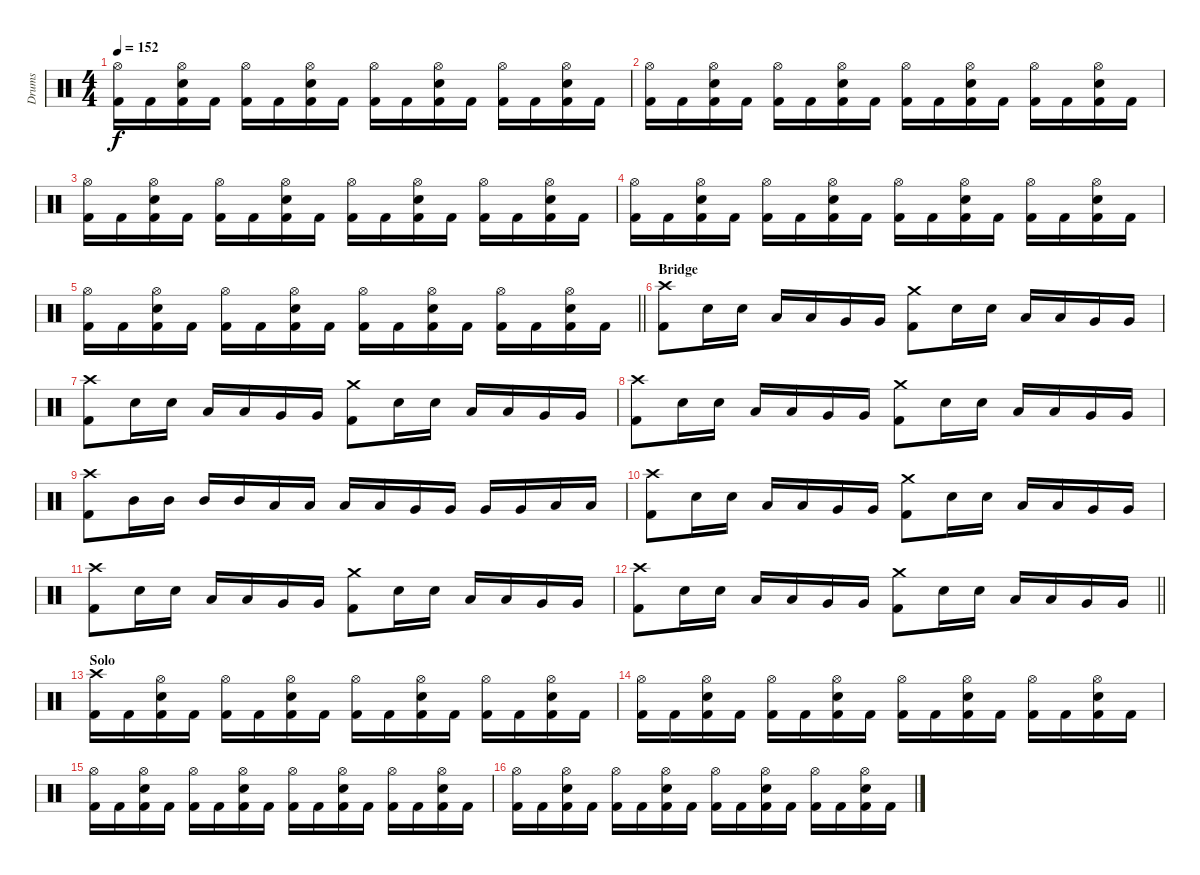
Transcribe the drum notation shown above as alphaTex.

\track ("Drums" "Drums") {instrument percussion}
\staff {score}
\articulation defaults
\ts (4 4)
\tempo 152
\clef neutral
\ks c
("Hi-Hat (open)" "Kick (hit) 2").16{dy f} "Kick (hit) 2".16 ("Hi-Hat (open)" "Snare (hit) 2" "Kick (hit) 2").16 "Kick (hit) 2".16 ("Hi-Hat (open)" "Kick (hit) 2").16 "Kick (hit) 2".16 ("Hi-Hat (open)" "Snare (hit) 2" "Kick (hit) 2").16 "Kick (hit) 2".16 ("Hi-Hat (open)" "Kick (hit) 2").16 "Kick (hit) 2".16 ("Hi-Hat (open)" "Snare (hit) 2" "Kick (hit) 2").16 "Kick (hit) 2".16 ("Hi-Hat (open)" "Kick (hit) 2").16 "Kick (hit) 2".16 ("Hi-Hat (open)" "Snare (hit) 2" "Kick (hit) 2").16 "Kick (hit) 2".16 |
("Hi-Hat (open)" "Kick (hit) 2").16 "Kick (hit) 2".16 ("Hi-Hat (open)" "Snare (hit) 2" "Kick (hit) 2").16 "Kick (hit) 2".16 ("Hi-Hat (open)" "Kick (hit) 2").16 "Kick (hit) 2".16 ("Hi-Hat (open)" "Snare (hit) 2" "Kick (hit) 2").16 "Kick (hit) 2".16 ("Hi-Hat (open)" "Kick (hit) 2").16 "Kick (hit) 2".16 ("Hi-Hat (open)" "Snare (hit) 2" "Kick (hit) 2").16 "Kick (hit) 2".16 ("Hi-Hat (open)" "Kick (hit) 2").16 "Kick (hit) 2".16 ("Hi-Hat (open)" "Snare (hit) 2" "Kick (hit) 2").16 "Kick (hit) 2".16 |
("Hi-Hat (open)" "Kick (hit) 2").16 "Kick (hit) 2".16 ("Hi-Hat (open)" "Snare (hit) 2" "Kick (hit) 2").16 "Kick (hit) 2".16 ("Hi-Hat (open)" "Kick (hit) 2").16 "Kick (hit) 2".16 ("Hi-Hat (open)" "Snare (hit) 2" "Kick (hit) 2").16 "Kick (hit) 2".16 ("Hi-Hat (open)" "Kick (hit) 2").16 "Kick (hit) 2".16 ("Hi-Hat (open)" "Snare (hit) 2" "Kick (hit) 2").16 "Kick (hit) 2".16 ("Hi-Hat (open)" "Kick (hit) 2").16 "Kick (hit) 2".16 ("Hi-Hat (open)" "Snare (hit) 2" "Kick (hit) 2").16 "Kick (hit) 2".16 |
("Hi-Hat (open)" "Kick (hit) 2").16 "Kick (hit) 2".16 ("Hi-Hat (open)" "Snare (hit) 2" "Kick (hit) 2").16 "Kick (hit) 2".16 ("Hi-Hat (open)" "Kick (hit) 2").16 "Kick (hit) 2".16 ("Hi-Hat (open)" "Snare (hit) 2" "Kick (hit) 2").16 "Kick (hit) 2".16 ("Hi-Hat (open)" "Kick (hit) 2").16 "Kick (hit) 2".16 ("Hi-Hat (open)" "Snare (hit) 2" "Kick (hit) 2").16 "Kick (hit) 2".16 ("Hi-Hat (open)" "Kick (hit) 2").16 "Kick (hit) 2".16 ("Hi-Hat (open)" "Snare (hit) 2" "Kick (hit) 2").16 "Kick (hit) 2".16 |
\barLineRight lightlight
("Hi-Hat (open)" "Kick (hit) 2").16 "Kick (hit) 2".16 ("Hi-Hat (open)" "Snare (hit) 2" "Kick (hit) 2").16 "Kick (hit) 2".16 ("Hi-Hat (open)" "Kick (hit) 2").16 "Kick (hit) 2".16 ("Hi-Hat (open)" "Snare (hit) 2" "Kick (hit) 2").16 "Kick (hit) 2".16 ("Hi-Hat (open)" "Kick (hit) 2").16 "Kick (hit) 2".16 ("Hi-Hat (open)" "Snare (hit) 2" "Kick (hit) 2").16 "Kick (hit) 2".16 ("Hi-Hat (open)" "Kick (hit) 2").16 "Kick (hit) 2".16 ("Hi-Hat (open)" "Snare (hit) 2" "Kick (hit) 2").16 "Kick (hit) 2".16 |
\section ("" "Bridge")
("Crash high (hit)" "Kick (hit) 2").8 "Snare (hit) 2".16 "Snare (hit) 2".16 "Low Tom (hit)".16 "Low Tom (hit)".16 "Very Low Tom (hit)".16 "Very Low Tom (hit)".16 ("Crash medium (hit)" "Kick (hit) 2").8 "Snare (hit) 2".16 "Snare (hit) 2".16 "Low Tom (hit)".16 "Low Tom (hit)".16 "Very Low Tom (hit)".16 "Very Low Tom (hit)".16 |
("Crash high (hit)" "Kick (hit) 2").8 "Snare (hit) 2".16 "Snare (hit) 2".16 "Low Tom (hit)".16 "Low Tom (hit)".16 "Very Low Tom (hit)".16 "Very Low Tom (hit)".16 ("Crash medium (hit)" "Kick (hit) 2").8 "Snare (hit) 2".16 "Snare (hit) 2".16 "Low Tom (hit)".16 "Low Tom (hit)".16 "Very Low Tom (hit)".16 "Very Low Tom (hit)".16 |
("Crash high (hit)" "Kick (hit) 2").8 "Snare (hit) 2".16 "Snare (hit) 2".16 "Low Tom (hit)".16 "Low Tom (hit)".16 "Very Low Tom (hit)".16 "Very Low Tom (hit)".16 ("Crash medium (hit)" "Kick (hit) 2").8 "Snare (hit) 2".16 "Snare (hit) 2".16 "Low Tom (hit)".16 "Low Tom (hit)".16 "Very Low Tom (hit)".16 "Very Low Tom (hit)".16 |
("Crash high (hit)" "Kick (hit) 2").8 "Mid Tom (hit)".16 "Mid Tom (hit)".16 "Mid Tom (hit)".16 "Mid Tom (hit)".16 "Low Tom (hit)".16 "Low Tom (hit)".16 "Low Tom (hit)".16 "Low Tom (hit)".16 "Very Low Tom (hit)".16 "Very Low Tom (hit)".16 "Very Low Tom (hit)".16 "Very Low Tom (hit)".16 "Low Floor Tom (hit)".16 "Low Floor Tom (hit)".16 |
("Crash high (hit)" "Kick (hit) 2").8 "Snare (hit) 2".16 "Snare (hit) 2".16 "Low Tom (hit)".16 "Low Tom (hit)".16 "Very Low Tom (hit)".16 "Very Low Tom (hit)".16 ("Crash medium (hit)" "Kick (hit) 2").8 "Snare (hit) 2".16 "Snare (hit) 2".16 "Low Tom (hit)".16 "Low Tom (hit)".16 "Very Low Tom (hit)".16 "Very Low Tom (hit)".16 |
("Crash high (hit)" "Kick (hit) 2").8 "Snare (hit) 2".16 "Snare (hit) 2".16 "Low Tom (hit)".16 "Low Tom (hit)".16 "Very Low Tom (hit)".16 "Very Low Tom (hit)".16 ("Crash medium (hit)" "Kick (hit) 2").8 "Snare (hit) 2".16 "Snare (hit) 2".16 "Low Tom (hit)".16 "Low Tom (hit)".16 "Very Low Tom (hit)".16 "Very Low Tom (hit)".16 |
\barLineRight lightlight
("Crash high (hit)" "Kick (hit) 2").8 "Snare (hit) 2".16 "Snare (hit) 2".16 "Low Tom (hit)".16 "Low Tom (hit)".16 "Very Low Tom (hit)".16 "Very Low Tom (hit)".16 ("Crash medium (hit)" "Kick (hit) 2").8 "Snare (hit) 2".16 "Snare (hit) 2".16 "Low Tom (hit)".16 "Low Tom (hit)".16 "Very Low Tom (hit)".16 "Very Low Tom (hit)".16 |
\section ("" "Solo")
("Crash high (hit)" "Kick (hit) 2").16 "Kick (hit) 2".16 ("Hi-Hat (open)" "Snare (hit) 2" "Kick (hit) 2").16 "Kick (hit) 2".16 ("Hi-Hat (open)" "Kick (hit) 2").16 "Kick (hit) 2".16 ("Hi-Hat (open)" "Snare (hit) 2" "Kick (hit) 2").16 "Kick (hit) 2".16 ("Hi-Hat (open)" "Kick (hit) 2").16 "Kick (hit) 2".16 ("Hi-Hat (open)" "Snare (hit) 2" "Kick (hit) 2").16 "Kick (hit) 2".16 ("Hi-Hat (open)" "Kick (hit) 2").16 "Kick (hit) 2".16 ("Hi-Hat (open)" "Snare (hit) 2" "Kick (hit) 2").16 "Kick (hit) 2".16 |
("Hi-Hat (open)" "Kick (hit) 2").16 "Kick (hit) 2".16 ("Hi-Hat (open)" "Snare (hit) 2" "Kick (hit) 2").16 "Kick (hit) 2".16 ("Hi-Hat (open)" "Kick (hit) 2").16 "Kick (hit) 2".16 ("Hi-Hat (open)" "Snare (hit) 2" "Kick (hit) 2").16 "Kick (hit) 2".16 ("Hi-Hat (open)" "Kick (hit) 2").16 "Kick (hit) 2".16 ("Hi-Hat (open)" "Snare (hit) 2" "Kick (hit) 2").16 "Kick (hit) 2".16 ("Hi-Hat (open)" "Kick (hit) 2").16 "Kick (hit) 2".16 ("Hi-Hat (open)" "Snare (hit) 2" "Kick (hit) 2").16 "Kick (hit) 2".16 |
("Hi-Hat (open)" "Kick (hit) 2").16 "Kick (hit) 2".16 ("Hi-Hat (open)" "Snare (hit) 2" "Kick (hit) 2").16 "Kick (hit) 2".16 ("Hi-Hat (open)" "Kick (hit) 2").16 "Kick (hit) 2".16 ("Hi-Hat (open)" "Snare (hit) 2" "Kick (hit) 2").16 "Kick (hit) 2".16 ("Hi-Hat (open)" "Kick (hit) 2").16 "Kick (hit) 2".16 ("Hi-Hat (open)" "Snare (hit) 2" "Kick (hit) 2").16 "Kick (hit) 2".16 ("Hi-Hat (open)" "Kick (hit) 2").16 "Kick (hit) 2".16 ("Hi-Hat (open)" "Snare (hit) 2" "Kick (hit) 2").16 "Kick (hit) 2".16 |
("Hi-Hat (open)" "Kick (hit) 2").16 "Kick (hit) 2".16 ("Hi-Hat (open)" "Snare (hit) 2" "Kick (hit) 2").16 "Kick (hit) 2".16 ("Hi-Hat (open)" "Kick (hit) 2").16 "Kick (hit) 2".16 ("Hi-Hat (open)" "Snare (hit) 2" "Kick (hit) 2").16 "Kick (hit) 2".16 ("Hi-Hat (open)" "Kick (hit) 2").16 "Kick (hit) 2".16 ("Hi-Hat (open)" "Snare (hit) 2" "Kick (hit) 2").16 "Kick (hit) 2".16 ("Hi-Hat (open)" "Kick (hit) 2").16 "Kick (hit) 2".16 ("Hi-Hat (open)" "Snare (hit) 2" "Kick (hit) 2").16 "Kick (hit) 2".16
